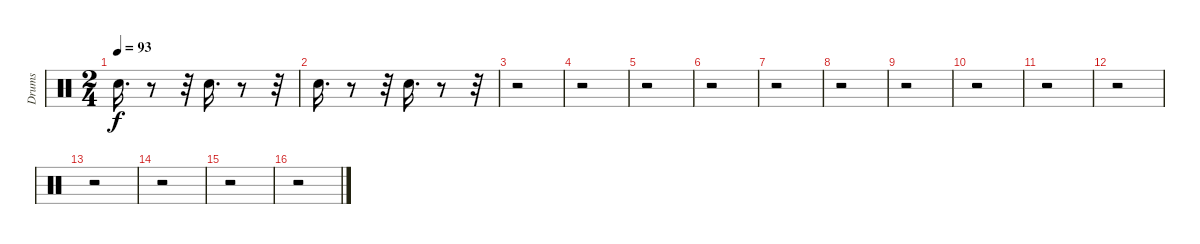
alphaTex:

\track ("Drums" "Drums") {instrument percussion}
\staff {score}
\articulation defaults
\ts (2 4)
\tempo 93
\clef neutral
\ks c "Hand Clap (hit)".16{d dy f}
r.8 r.32 "Hand Clap (hit)".16{d} r.8 r.32 |
"Hand Clap (hit)".16{d} r.8 r.32 "Hand Clap (hit)".16{d} r.8 r.32 |
r.2 |
r.2 |
r.2 |
r.2 |
r.2 |
r.2 |
r.2 |
r.2 |
r.2 |
r.2 |
r.2 |
r.2 |
r.2 |
r.2
